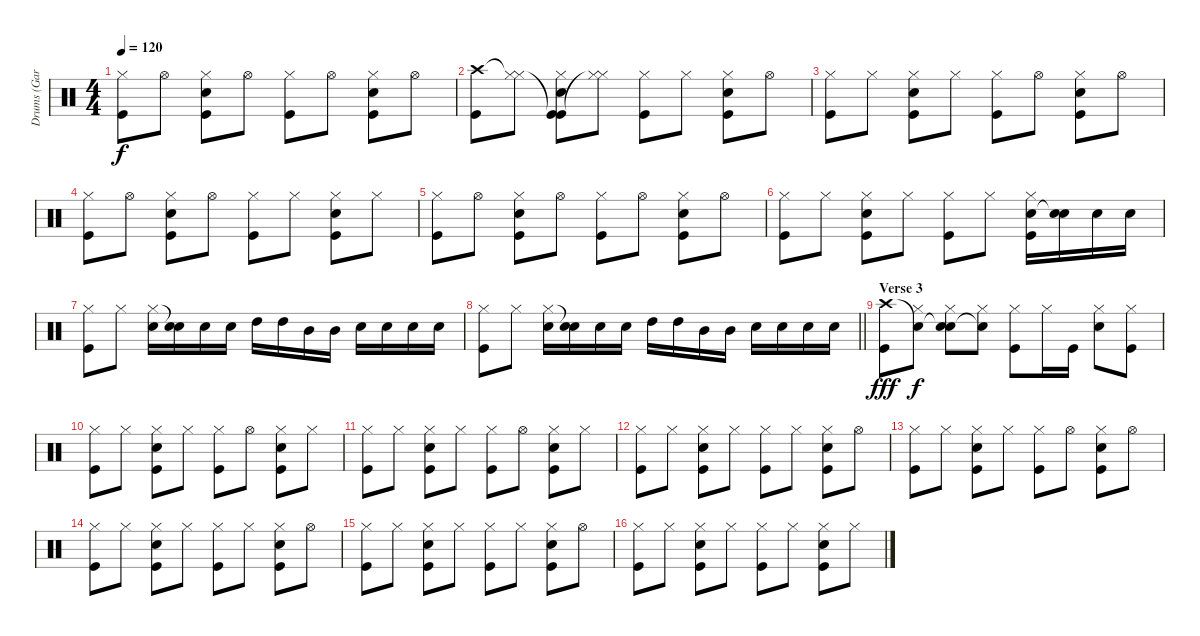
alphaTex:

\track ("Drums (Gary Mallaber)" "Drums (Gar") {instrument percussion}
\staff {score}
\articulation defaults
\ts (4 4)
\tempo 120
\clef neutral
\ks c
("Hi-Hat (closed)" "Kick (hit)").8{dy f} "Hi-Hat (open)".8 ("Hi-Hat (closed)" "Snare (hit) 2" "Kick (hit)").8 "Hi-Hat (open)".8 ("Hi-Hat (closed)" "Kick (hit)").8 "Hi-Hat (open)".8 ("Hi-Hat (closed)" "Snare (hit) 2" "Kick (hit)").8 "Hi-Hat (open)".8 |
("Crash high (hit)" "Kick (hit)").8 ("Hi-Hat (closed)"{t} "Hi-Hat (closed)").8 ("Kick (hit)"{t} "Hi-Hat (closed)" "Snare (hit) 2" "Kick (hit)").8 ("Hi-Hat (closed)"{t} "Hi-Hat (closed)").8 ("Hi-Hat (closed)" "Kick (hit)").8 "Hi-Hat (closed)".8 ("Hi-Hat (closed)" "Snare (hit) 2" "Kick (hit)").8 "Hi-Hat (open)".8 |
("Hi-Hat (closed)" "Kick (hit)").8 "Hi-Hat (closed)".8 ("Hi-Hat (closed)" "Snare (hit) 2" "Kick (hit)").8 "Hi-Hat (closed)".8 ("Hi-Hat (closed)" "Kick (hit)").8 "Hi-Hat (open)".8 ("Hi-Hat (closed)" "Snare (hit) 2" "Kick (hit)").8 "Hi-Hat (open)".8 |
("Hi-Hat (closed)" "Kick (hit)").8 "Hi-Hat (open)".8 ("Hi-Hat (closed)" "Snare (hit) 2" "Kick (hit)").8 "Hi-Hat (open)".8 ("Hi-Hat (closed)" "Kick (hit)").8 "Hi-Hat (closed)".8 ("Hi-Hat (closed)" "Snare (hit) 2" "Kick (hit)").8 "Hi-Hat (closed)".8 |
("Hi-Hat (closed)" "Kick (hit)").8 "Hi-Hat (open)".8 ("Hi-Hat (closed)" "Snare (hit) 2" "Kick (hit)").8 "Hi-Hat (open)".8 ("Hi-Hat (closed)" "Kick (hit)").8 "Hi-Hat (open)".8 ("Hi-Hat (closed)" "Snare (hit) 2" "Kick (hit)").8 "Hi-Hat (open)".8 |
("Hi-Hat (closed)" "Kick (hit)").8 "Hi-Hat (closed)".8 ("Hi-Hat (closed)" "Snare (hit) 2" "Kick (hit)").8 "Hi-Hat (closed)".8 ("Hi-Hat (closed)" "Kick (hit)").8 "Hi-Hat (closed)".8 ("Hi-Hat (closed)" "Snare (hit) 2" "Kick (hit)").16 ("Snare (hit) 2" "Snare (hit)"{t}).16 "Snare (hit) 2".16 "Snare (hit) 2".16 |
("Hi-Hat (closed)" "Kick (hit)").8 "Hi-Hat (closed)".8 ("Hi-Hat (closed)" "Snare (hit) 2").16 ("Snare (hit)"{t} "Snare (hit) 2").16 "Snare (hit) 2".16 "Snare (hit) 2".16 "High Tom (hit)".16 "High Tom (hit)".16 "Mid Tom (hit)".16 "Mid Tom (hit)".16 "Snare (hit) 2".16 "Snare (hit) 2".16 "Snare (hit) 2".16 "Snare (hit) 2".16 |
\barLineRight lightlight
("Hi-Hat (closed)" "Kick (hit)").8 "Hi-Hat (closed)".8 ("Hi-Hat (closed)" "Snare (hit) 2").16 ("Snare (hit)"{t} "Snare (hit) 2").16 "Snare (hit) 2".16 "Snare (hit) 2".16 "High Tom (hit)".16 "High Tom (hit)".16 "Mid Tom (hit)".16 "Mid Tom (hit)".16 "Snare (hit) 2".16 "Snare (hit) 2".16 "Snare (hit) 2".16 "Snare (hit) 2".16 |
\section ("" "Verse 3")
("Crash high (hit)" "Kick (hit)").8{dy fff} ("Snare (hit)"{t} "Hi-Hat (closed)").8{dy f} ("Snare (hit)"{t} "Hi-Hat (closed)" "Snare (hit) 2").8 ("Snare (hit)"{t} "Hi-Hat (closed)").8 ("Hi-Hat (closed)" "Kick (hit)").8 "Hi-Hat (closed)".16 "Kick (hit)".16 ("Hi-Hat (closed)" "Snare (hit) 2").8 ("Hi-Hat (closed)" "Kick (hit)").8 |
("Hi-Hat (closed)" "Kick (hit)").8 "Hi-Hat (closed)".8 ("Hi-Hat (closed)" "Snare (hit) 2" "Kick (hit)").8 "Hi-Hat (closed)".8 ("Hi-Hat (closed)" "Kick (hit)").8 "Hi-Hat (open)".8 ("Hi-Hat (closed)" "Snare (hit) 2" "Kick (hit)").8 "Hi-Hat (closed)".8 |
("Hi-Hat (closed)" "Kick (hit)").8 "Hi-Hat (closed)".8 ("Hi-Hat (closed)" "Snare (hit) 2" "Kick (hit)").8 "Hi-Hat (closed)".8 ("Hi-Hat (closed)" "Kick (hit)").8 "Hi-Hat (open)".8 ("Hi-Hat (closed)" "Snare (hit) 2" "Kick (hit)").8 "Hi-Hat (closed)".8 |
("Hi-Hat (closed)" "Kick (hit)").8 "Hi-Hat (closed)".8 ("Hi-Hat (closed)" "Snare (hit) 2" "Kick (hit)").8 "Hi-Hat (closed)".8 ("Hi-Hat (closed)" "Kick (hit)").8 "Hi-Hat (closed)".8 ("Hi-Hat (closed)" "Snare (hit) 2" "Kick (hit)").8 "Hi-Hat (open)".8 |
("Hi-Hat (closed)" "Kick (hit)").8 "Hi-Hat (closed)".8 ("Hi-Hat (closed)" "Snare (hit) 2" "Kick (hit)").8 "Hi-Hat (closed)".8 ("Hi-Hat (closed)" "Kick (hit)").8 "Hi-Hat (open)".8 ("Hi-Hat (closed)" "Snare (hit) 2" "Kick (hit)").8 "Hi-Hat (open)".8 |
("Hi-Hat (closed)" "Kick (hit)").8 "Hi-Hat (closed)".8 ("Hi-Hat (closed)" "Snare (hit) 2" "Kick (hit)").8 "Hi-Hat (closed)".8 ("Hi-Hat (closed)" "Kick (hit)").8 "Hi-Hat (closed)".8 ("Hi-Hat (closed)" "Snare (hit) 2" "Kick (hit)").8 "Hi-Hat (open)".8 |
("Hi-Hat (closed)" "Kick (hit)").8 "Hi-Hat (closed)".8 ("Hi-Hat (closed)" "Snare (hit) 2" "Kick (hit)").8 "Hi-Hat (closed)".8 ("Hi-Hat (closed)" "Kick (hit)").8 "Hi-Hat (closed)".8 ("Hi-Hat (closed)" "Snare (hit) 2" "Kick (hit)").8 "Hi-Hat (open)".8 |
("Hi-Hat (closed)" "Kick (hit)").8 "Hi-Hat (closed)".8 ("Hi-Hat (closed)" "Snare (hit) 2" "Kick (hit)").8 "Hi-Hat (closed)".8 ("Hi-Hat (closed)" "Kick (hit)").8 "Hi-Hat (closed)".8 ("Hi-Hat (closed)" "Snare (hit) 2" "Kick (hit)").8 "Hi-Hat (closed)".8
